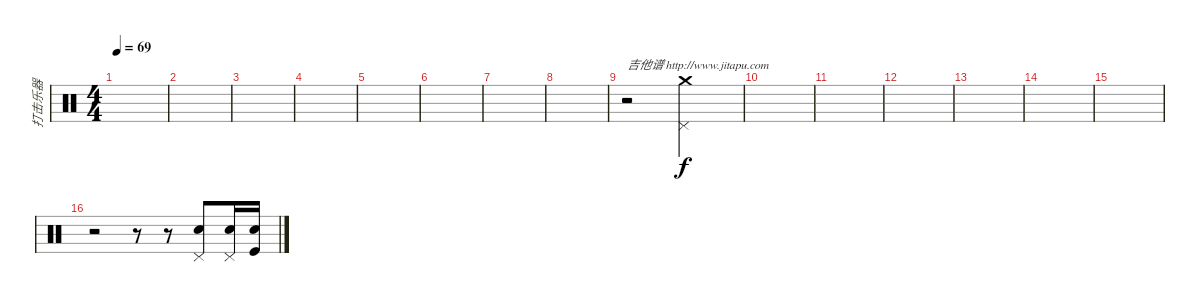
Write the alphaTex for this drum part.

\track ("打击乐器" "打击乐器") {instrument percussion}
\staff {score}
\articulation defaults
\ts (4 4)
\tempo 69
\clef neutral
\ks c
|
|
|
|
|
|
|
|
r.2{txt "吉他谱 http://www.jitapu.com"} ("Pedal Hi-Hat (hit)" "Crash medium (hit)").2 |
|
|
|
|
|
|
r.2 r.8 r.8 ("Electric Snare (hit)" "Pedal Hi-Hat (hit)").8 ("Electric Snare (hit)" "Pedal Hi-Hat (hit)").16 ("Electric Snare (hit)" "Kick (hit)").16
